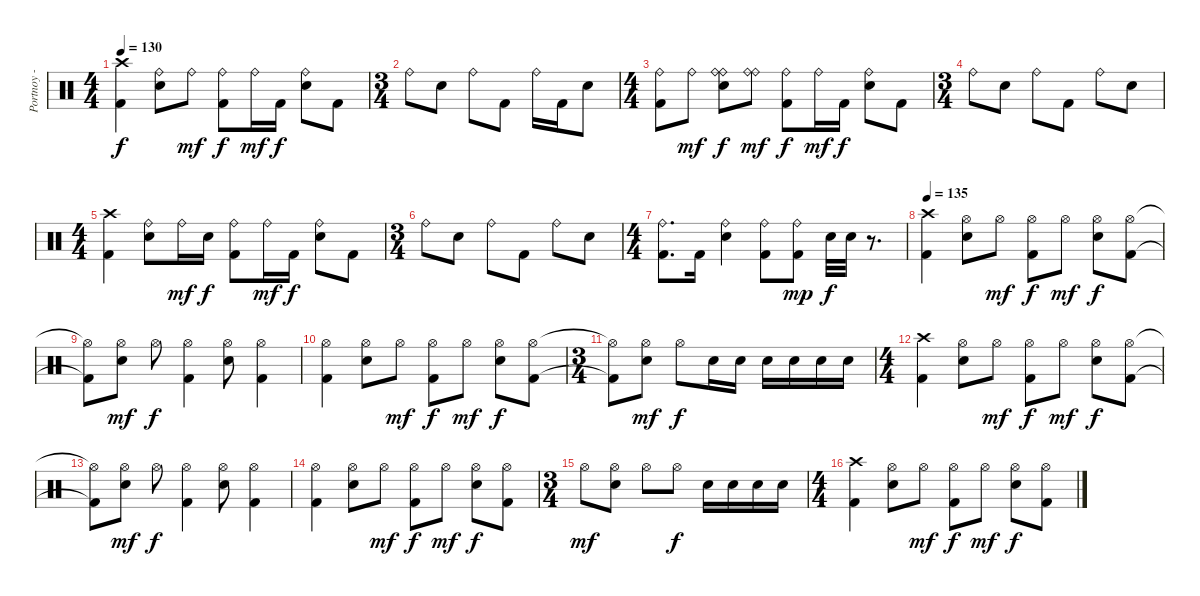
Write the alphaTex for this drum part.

\track ("Portnoy - Drums" "Portnoy - ") {instrument percussion}
\staff {score}
\articulation defaults
\ts (4 4)
\tempo 130
\clef neutral
\ks c
("Crash high (hit)" "Kick (hit) 2").4{dy f} ("Electric Snare (hit)" "Ride (bell)").8 "Ride (bell)".8{dy mf} ("Kick (hit) 2" "Ride (bell)").8{dy f} "Ride (bell)".16{dy mf} "Kick (hit) 2".16{dy f} ("Ride (bell)" "Electric Snare (hit)").8 "Kick (hit) 2".8 |
\ts (3 4)
"Ride (bell)".8 "Electric Snare (hit)".8 "Ride (bell)".8 "Kick (hit) 2".8 "Ride (bell)".16 "Kick (hit) 2".16 "Electric Snare (hit)".8 |
\ts (4 4)
("Kick (hit) 2" "Ride (bell)").8 "Ride (bell)".8{dy mf} ("Electric Snare (hit)" "Ride (bell)" "Ride (bell)").8{dy f} ("Ride (bell)" "Ride (bell)").8{dy mf} ("Kick (hit) 2" "Ride (bell)").8{dy f} "Ride (bell)".16{dy mf} "Kick (hit) 2".16{dy f} ("Ride (bell)" "Electric Snare (hit)").8 "Kick (hit) 2".8 |
\ts (3 4)
"Ride (bell)".8 "Electric Snare (hit)".8 "Ride (bell)".8 "Kick (hit) 2".8 "Ride (bell)".8 "Electric Snare (hit)".8 |
\ts (4 4)
("Kick (hit) 2" "Crash high (hit)").4 ("Ride (bell)" "Electric Snare (hit)").8 "Ride (bell)".16{dy mf} "Electric Snare (hit)".16{dy f} ("Kick (hit) 2" "Ride (bell)").8 "Ride (bell)".16{dy mf} "Kick (hit) 2".16{dy f} ("Ride (bell)" "Electric Snare (hit)").8 "Kick (hit) 2".8 |
\ts (3 4)
"Ride (bell)".8 "Electric Snare (hit)".8 "Ride (bell)".8 "Kick (hit) 2".8 "Ride (bell)".8 "Electric Snare (hit)".8 |
\ts (4 4)
("Ride (bell)" "Kick (hit) 2").8{d} "Kick (hit) 2".16 ("Ride (bell)" "Electric Snare (hit)").4 ("Kick (hit) 2" "Ride (bell)").8 ("Kick (hit) 2" "Ride (bell)").8{dy mp} "Electric Snare (hit)".32{dy f} "Electric Snare (hit)".32 r.8{d} |
\tempo 135
("Kick (hit) 2" "Crash high (hit)").4 ("Electric Snare (hit)" "Hi-Hat (open)").8 "Hi-Hat (open)".8{dy mf} ("Kick (hit) 2" "Hi-Hat (open)").8{dy f} "Hi-Hat (open)".8{dy mf} ("Electric Snare (hit)" "Hi-Hat (open)").8{dy f} ("Kick (hit) 2" "Hi-Hat (open)").8 |
("Kick (hit) 2"{t} "Hi-Hat (open)"{t}).8 ("Electric Snare (hit)" "Hi-Hat (open)").8{dy mf} "Hi-Hat (open)".8{dy f} ("Kick (hit) 2" "Hi-Hat (open)").4 ("Electric Snare (hit)" "Hi-Hat (open)").8 ("Hi-Hat (open)" "Kick (hit) 2").4 |
("Kick (hit) 2" "Hi-Hat (open)").4 ("Electric Snare (hit)" "Hi-Hat (open)").8 "Hi-Hat (open)".8{dy mf} ("Kick (hit) 2" "Hi-Hat (open)").8{dy f} "Hi-Hat (open)".8{dy mf} ("Electric Snare (hit)" "Hi-Hat (open)").8{dy f} ("Kick (hit) 2" "Hi-Hat (open)").8 |
\ts (3 4)
("Kick (hit) 2"{t} "Hi-Hat (open)"{t}).8 ("Electric Snare (hit)" "Hi-Hat (open)").8{dy mf} "Hi-Hat (open)".8{dy f} "Electric Snare (hit)".16 "Electric Snare (hit)".16 "Electric Snare (hit)".16 "Electric Snare (hit)".16 "Electric Snare (hit)".16 "Electric Snare (hit)".16 |
\ts (4 4)
("Crash high (hit)" "Kick (hit) 2").4 ("Electric Snare (hit)" "Hi-Hat (open)").8 "Hi-Hat (open)".8{dy mf} ("Kick (hit) 2" "Hi-Hat (open)").8{dy f} "Hi-Hat (open)".8{dy mf} ("Electric Snare (hit)" "Hi-Hat (open)").8{dy f} ("Kick (hit) 2" "Hi-Hat (open)").8 |
("Kick (hit) 2"{t} "Hi-Hat (open)"{t}).8 ("Electric Snare (hit)" "Hi-Hat (open)").8{dy mf} "Hi-Hat (open)".8{dy f} ("Kick (hit) 2" "Hi-Hat (open)").4 ("Electric Snare (hit)" "Hi-Hat (open)").8 ("Hi-Hat (open)" "Kick (hit) 2").4 |
("Kick (hit) 2" "Hi-Hat (open)").4 ("Electric Snare (hit)" "Hi-Hat (open)").8 "Hi-Hat (open)".8{dy mf} ("Kick (hit) 2" "Hi-Hat (open)").8{dy f} "Hi-Hat (open)".8{dy mf} ("Electric Snare (hit)" "Hi-Hat (open)").8{dy f} ("Kick (hit) 2" "Hi-Hat (open)").8 |
\ts (3 4)
"Hi-Hat (open)".8{dy mf} ("Electric Snare (hit)" "Hi-Hat (open)").8 "Hi-Hat (open)".8 "Hi-Hat (open)".8{dy f} "Electric Snare (hit)".16 "Electric Snare (hit)".16 "Electric Snare (hit)".16 "Electric Snare (hit)".16 |
\ts (4 4)
("Kick (hit) 2" "Crash high (hit)").4 ("Electric Snare (hit)" "Hi-Hat (open)").8 "Hi-Hat (open)".8{dy mf} ("Kick (hit) 2" "Hi-Hat (open)").8{dy f} "Hi-Hat (open)".8{dy mf} ("Electric Snare (hit)" "Hi-Hat (open)").8{dy f} ("Kick (hit) 2" "Hi-Hat (open)").8
